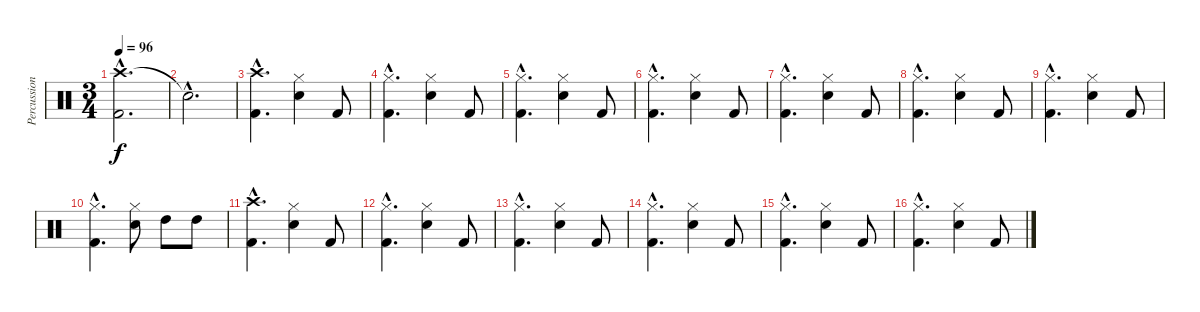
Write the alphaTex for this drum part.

\track ("Percussions" "Percussion") {instrument percussion}
\staff {score}
\articulation defaults
\ts (3 4)
\tempo 96
\clef neutral
\ks c
("Crash high (hit)"{hac} "Kick (hit) 2"{hac}).2{d dy f} |
"Snare (hit)"{hac t}.2{d} |
("Crash high (hit)"{hac} "Kick (hit) 2"{hac}).4{d} ("Hi-Hat (closed)" "Snare (hit) 2").4 "Kick (hit) 2".8 |
("Hi-Hat (closed)"{hac} "Kick (hit) 2"{hac}).4{d} ("Hi-Hat (closed)" "Snare (hit) 2").4 "Kick (hit) 2".8 |
("Hi-Hat (closed)"{hac} "Kick (hit) 2"{hac}).4{d} ("Hi-Hat (closed)" "Snare (hit) 2").4 "Kick (hit) 2".8 |
("Hi-Hat (closed)"{hac} "Kick (hit) 2"{hac}).4{d} ("Hi-Hat (closed)" "Snare (hit) 2").4 "Kick (hit) 2".8 |
("Hi-Hat (closed)"{hac} "Kick (hit) 2"{hac}).4{d} ("Hi-Hat (closed)" "Snare (hit) 2").4 "Kick (hit) 2".8 |
("Hi-Hat (closed)"{hac} "Kick (hit) 2"{hac}).4{d} ("Hi-Hat (closed)" "Snare (hit) 2").4 "Kick (hit) 2".8 |
("Hi-Hat (closed)"{hac} "Kick (hit) 2"{hac}).4{d} ("Hi-Hat (closed)" "Snare (hit) 2").4 "Kick (hit) 2".8 |
("Hi-Hat (closed)"{hac} "Kick (hit) 2"{hac}).4{d} ("Hi-Hat (closed)" "Snare (hit) 2").8 "High Tom (hit)".8 "High Tom (hit)".8 |
("Crash high (hit)"{hac} "Kick (hit) 2"{hac}).4{d} ("Hi-Hat (closed)" "Snare (hit) 2").4 "Kick (hit) 2".8 |
("Hi-Hat (closed)"{hac} "Kick (hit) 2"{hac}).4{d} ("Hi-Hat (closed)" "Snare (hit) 2").4 "Kick (hit) 2".8 |
("Hi-Hat (closed)"{hac} "Kick (hit) 2"{hac}).4{d} ("Hi-Hat (closed)" "Snare (hit) 2").4 "Kick (hit) 2".8 |
("Hi-Hat (closed)"{hac} "Kick (hit) 2"{hac}).4{d} ("Hi-Hat (closed)" "Snare (hit) 2").4 "Kick (hit) 2".8 |
("Hi-Hat (closed)"{hac} "Kick (hit) 2"{hac}).4{d} ("Hi-Hat (closed)" "Snare (hit) 2").4 "Kick (hit) 2".8 |
("Hi-Hat (closed)"{hac} "Kick (hit) 2"{hac}).4{d} ("Hi-Hat (closed)" "Snare (hit) 2").4 "Kick (hit) 2".8
